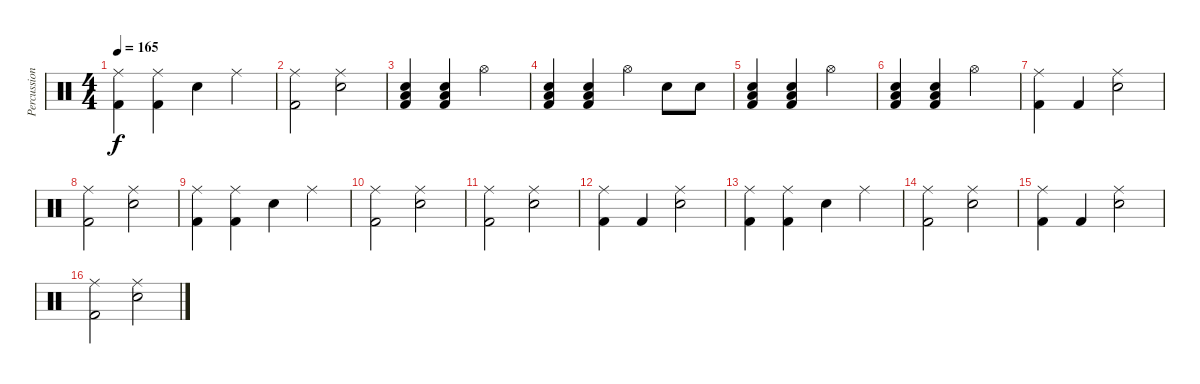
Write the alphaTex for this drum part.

\track ("Percussion" "Percussion") {instrument percussion}
\staff {score}
\articulation defaults
\ts (4 4)
\tempo 165
\clef neutral
\ks c
("Ride (middle)" "Kick (hit) 2").4{dy f} ("Ride (middle)" "Kick (hit) 2").4 "Snare (hit) 2".4 "Ride (middle)".4 |
("Ride (middle)" "Kick (hit) 2").2 ("Ride (middle)" "Snare (hit) 2").2 |
("Snare (hit) 2" "Low Tom (hit)" "Kick (hit) 2").4 ("Snare (hit) 2" "Low Tom (hit)" "Kick (hit) 2").4 "Hi-Hat (open)".2 |
("Snare (hit) 2" "Low Tom (hit)" "Kick (hit) 2").4 ("Snare (hit) 2" "Low Tom (hit)" "Kick (hit) 2").4 "Hi-Hat (open)".4 "Snare (hit) 2".8 "Snare (hit) 2".8 |
("Snare (hit) 2" "Low Tom (hit)" "Kick (hit) 2").4 ("Snare (hit) 2" "Low Tom (hit)" "Kick (hit) 2").4 "Hi-Hat (open)".2 |
("Snare (hit) 2" "Low Tom (hit)" "Kick (hit) 2").4 ("Snare (hit) 2" "Low Tom (hit)" "Kick (hit) 2").4 "Hi-Hat (open)".2 |
("Ride (middle)" "Kick (hit) 2").4 "Kick (hit) 2".4 ("Ride (middle)" "Snare (hit) 2").2 |
("Ride (middle)" "Kick (hit) 2").2 ("Ride (middle)" "Snare (hit) 2").2 |
("Ride (middle)" "Kick (hit) 2").4 ("Ride (middle)" "Kick (hit) 2").4 "Snare (hit) 2".4 "Ride (middle)".4 |
("Ride (middle)" "Kick (hit) 2").2 ("Ride (middle)" "Snare (hit) 2").2 |
("Ride (middle)" "Kick (hit) 2").2 ("Ride (middle)" "Snare (hit) 2").2 |
("Ride (middle)" "Kick (hit) 2").4 "Kick (hit) 2".4 ("Ride (middle)" "Snare (hit) 2").2 |
("Ride (middle)" "Kick (hit) 2").4 ("Ride (middle)" "Kick (hit) 2").4 "Snare (hit) 2".4 "Ride (middle)".4 |
("Ride (middle)" "Kick (hit) 2").2 ("Ride (middle)" "Snare (hit) 2").2 |
("Ride (middle)" "Kick (hit) 2").4 "Kick (hit) 2".4 ("Ride (middle)" "Snare (hit) 2").2 |
("Ride (middle)" "Kick (hit) 2").2 ("Ride (middle)" "Snare (hit) 2").2
